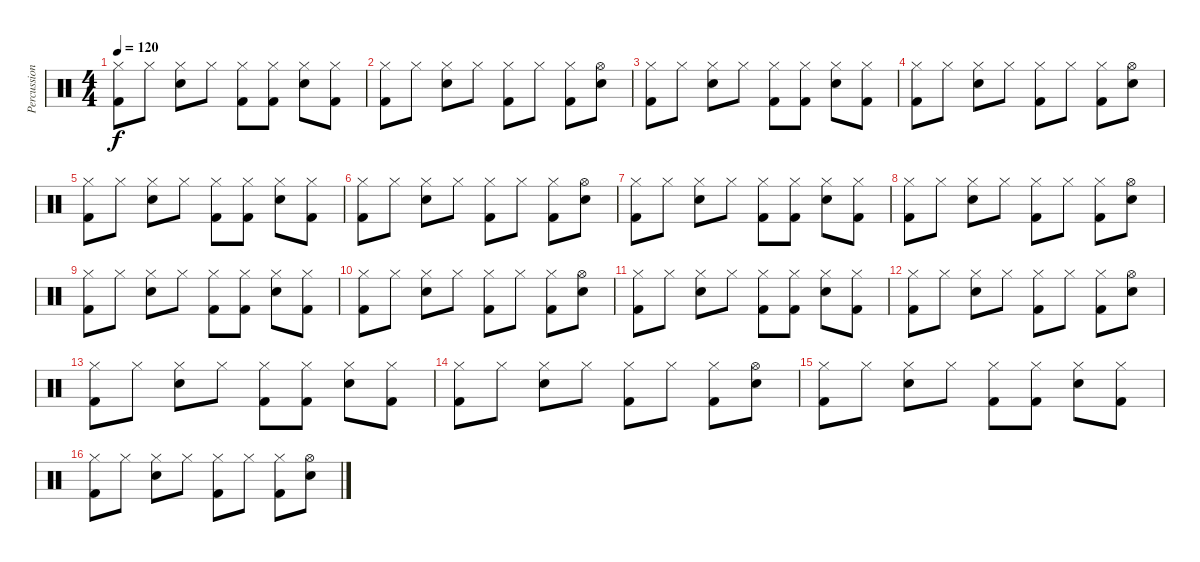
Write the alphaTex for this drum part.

\track ("Percussion" "Percussion") {instrument percussion}
\staff {score}
\articulation defaults
\ts (4 4)
\tempo 120
\clef neutral
\ks c
("Hi-Hat (closed)" "Kick (hit) 2").8{dy f} "Hi-Hat (closed)".8 ("Hi-Hat (closed)" "Snare (hit) 2").8 "Hi-Hat (closed)".8 ("Hi-Hat (closed)" "Kick (hit) 2").8 ("Hi-Hat (closed)" "Kick (hit) 2").8 ("Hi-Hat (closed)" "Snare (hit) 2").8 ("Hi-Hat (closed)" "Kick (hit) 2").8 |
("Hi-Hat (closed)" "Kick (hit) 2").8 "Hi-Hat (closed)".8 ("Hi-Hat (closed)" "Snare (hit) 2").8 "Hi-Hat (closed)".8 ("Hi-Hat (closed)" "Kick (hit) 2").8 "Hi-Hat (closed)".8 ("Hi-Hat (closed)" "Kick (hit) 2").8 ("Hi-Hat (open)" "Snare (hit) 2").8 |
("Hi-Hat (closed)" "Kick (hit) 2").8 "Hi-Hat (closed)".8 ("Hi-Hat (closed)" "Snare (hit) 2").8 "Hi-Hat (closed)".8 ("Hi-Hat (closed)" "Kick (hit) 2").8 ("Hi-Hat (closed)" "Kick (hit) 2").8 ("Hi-Hat (closed)" "Snare (hit) 2").8 ("Hi-Hat (closed)" "Kick (hit) 2").8 |
("Hi-Hat (closed)" "Kick (hit) 2").8 "Hi-Hat (closed)".8 ("Hi-Hat (closed)" "Snare (hit) 2").8 "Hi-Hat (closed)".8 ("Hi-Hat (closed)" "Kick (hit) 2").8 "Hi-Hat (closed)".8 ("Hi-Hat (closed)" "Kick (hit) 2").8 ("Hi-Hat (open)" "Snare (hit) 2").8 |
("Hi-Hat (closed)" "Kick (hit) 2").8 "Hi-Hat (closed)".8 ("Hi-Hat (closed)" "Snare (hit) 2").8 "Hi-Hat (closed)".8 ("Hi-Hat (closed)" "Kick (hit) 2").8 ("Hi-Hat (closed)" "Kick (hit) 2").8 ("Hi-Hat (closed)" "Snare (hit) 2").8 ("Hi-Hat (closed)" "Kick (hit) 2").8 |
("Hi-Hat (closed)" "Kick (hit) 2").8 "Hi-Hat (closed)".8 ("Hi-Hat (closed)" "Snare (hit) 2").8 "Hi-Hat (closed)".8 ("Hi-Hat (closed)" "Kick (hit) 2").8 "Hi-Hat (closed)".8 ("Hi-Hat (closed)" "Kick (hit) 2").8 ("Hi-Hat (open)" "Snare (hit) 2").8 |
("Hi-Hat (closed)" "Kick (hit) 2").8 "Hi-Hat (closed)".8 ("Hi-Hat (closed)" "Snare (hit) 2").8 "Hi-Hat (closed)".8 ("Hi-Hat (closed)" "Kick (hit) 2").8 ("Hi-Hat (closed)" "Kick (hit) 2").8 ("Hi-Hat (closed)" "Snare (hit) 2").8 ("Hi-Hat (closed)" "Kick (hit) 2").8 |
("Hi-Hat (closed)" "Kick (hit) 2").8 "Hi-Hat (closed)".8 ("Hi-Hat (closed)" "Snare (hit) 2").8 "Hi-Hat (closed)".8 ("Hi-Hat (closed)" "Kick (hit) 2").8 "Hi-Hat (closed)".8 ("Hi-Hat (closed)" "Kick (hit) 2").8 ("Hi-Hat (open)" "Snare (hit) 2").8 |
("Hi-Hat (closed)" "Kick (hit) 2").8{volume 9} "Hi-Hat (closed)".8 ("Hi-Hat (closed)" "Snare (hit) 2").8 "Hi-Hat (closed)".8 ("Hi-Hat (closed)" "Kick (hit) 2").8 ("Hi-Hat (closed)" "Kick (hit) 2").8 ("Hi-Hat (closed)" "Snare (hit) 2").8 ("Hi-Hat (closed)" "Kick (hit) 2").8 |
("Hi-Hat (closed)" "Kick (hit) 2").8 "Hi-Hat (closed)".8 ("Hi-Hat (closed)" "Snare (hit) 2").8 "Hi-Hat (closed)".8 ("Hi-Hat (closed)" "Kick (hit) 2").8 "Hi-Hat (closed)".8 ("Hi-Hat (closed)" "Kick (hit) 2").8 ("Hi-Hat (open)" "Snare (hit) 2").8 |
("Hi-Hat (closed)" "Kick (hit) 2").8 "Hi-Hat (closed)".8 ("Hi-Hat (closed)" "Snare (hit) 2").8 "Hi-Hat (closed)".8 ("Hi-Hat (closed)" "Kick (hit) 2").8 ("Hi-Hat (closed)" "Kick (hit) 2").8 ("Hi-Hat (closed)" "Snare (hit) 2").8 ("Hi-Hat (closed)" "Kick (hit) 2").8 |
("Hi-Hat (closed)" "Kick (hit) 2").8 "Hi-Hat (closed)".8 ("Hi-Hat (closed)" "Snare (hit) 2").8 "Hi-Hat (closed)".8 ("Hi-Hat (closed)" "Kick (hit) 2").8 "Hi-Hat (closed)".8 ("Hi-Hat (closed)" "Kick (hit) 2").8 ("Hi-Hat (open)" "Snare (hit) 2").8 |
("Hi-Hat (closed)" "Kick (hit) 2").8{volume 5} "Hi-Hat (closed)".8 ("Hi-Hat (closed)" "Snare (hit) 2").8 "Hi-Hat (closed)".8 ("Hi-Hat (closed)" "Kick (hit) 2").8 ("Hi-Hat (closed)" "Kick (hit) 2").8 ("Hi-Hat (closed)" "Snare (hit) 2").8 ("Hi-Hat (closed)" "Kick (hit) 2").8 |
("Hi-Hat (closed)" "Kick (hit) 2").8 "Hi-Hat (closed)".8 ("Hi-Hat (closed)" "Snare (hit) 2").8 "Hi-Hat (closed)".8 ("Hi-Hat (closed)" "Kick (hit) 2").8 "Hi-Hat (closed)".8 ("Hi-Hat (closed)" "Kick (hit) 2").8 ("Hi-Hat (open)" "Snare (hit) 2").8 |
("Hi-Hat (closed)" "Kick (hit) 2").8 "Hi-Hat (closed)".8 ("Hi-Hat (closed)" "Snare (hit) 2").8 "Hi-Hat (closed)".8 ("Hi-Hat (closed)" "Kick (hit) 2").8 ("Hi-Hat (closed)" "Kick (hit) 2").8 ("Hi-Hat (closed)" "Snare (hit) 2").8 ("Hi-Hat (closed)" "Kick (hit) 2").8 |
("Hi-Hat (closed)" "Kick (hit) 2").8 "Hi-Hat (closed)".8 ("Hi-Hat (closed)" "Snare (hit) 2").8 "Hi-Hat (closed)".8 ("Hi-Hat (closed)" "Kick (hit) 2").8 "Hi-Hat (closed)".8 ("Hi-Hat (closed)" "Kick (hit) 2").8 ("Hi-Hat (open)" "Snare (hit) 2").8
